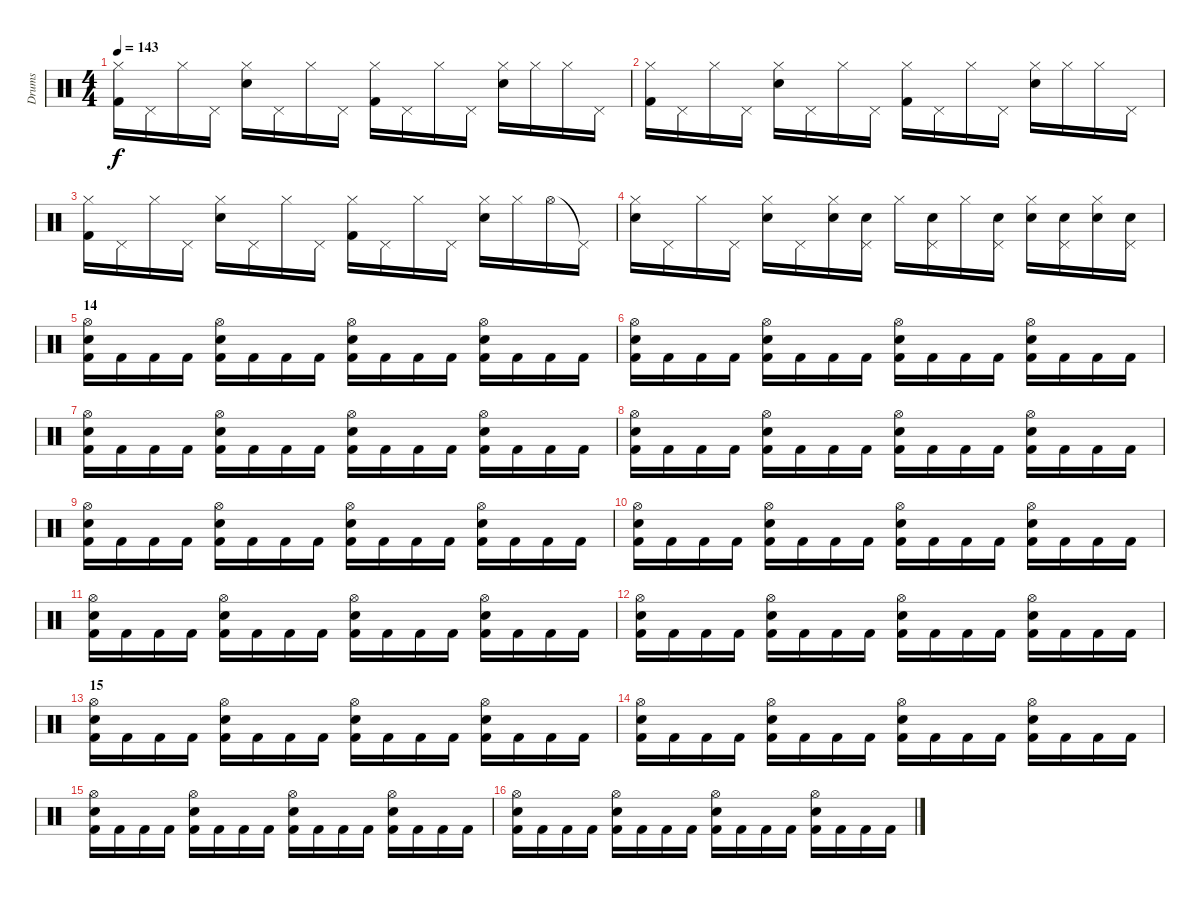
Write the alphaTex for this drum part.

\track ("Drums" "Drums") {instrument percussion}
\staff {score}
\articulation defaults
\ts (4 4)
\tempo 143
\clef neutral
\ks c
("Hi-Hat (closed)" "Kick (hit) 2").16{dy f} "Pedal Hi-Hat (hit)".16 "Hi-Hat (closed)".16 "Pedal Hi-Hat (hit)".16 ("Hi-Hat (closed)" "Electric Snare (hit)").16 "Pedal Hi-Hat (hit)".16 "Hi-Hat (closed)".16 "Pedal Hi-Hat (hit)".16 ("Hi-Hat (closed)" "Kick (hit) 2").16 "Pedal Hi-Hat (hit)".16 "Hi-Hat (closed)".16 "Pedal Hi-Hat (hit)".16 ("Hi-Hat (closed)" "Electric Snare (hit)").16 "Hi-Hat (closed)".16 "Hi-Hat (closed)".16 "Pedal Hi-Hat (hit)".16 |
("Hi-Hat (closed)" "Kick (hit) 2").16 "Pedal Hi-Hat (hit)".16 "Hi-Hat (closed)".16 "Pedal Hi-Hat (hit)".16 ("Hi-Hat (closed)" "Electric Snare (hit)").16 "Pedal Hi-Hat (hit)".16 "Hi-Hat (closed)".16 "Pedal Hi-Hat (hit)".16 ("Hi-Hat (closed)" "Kick (hit) 2").16 "Pedal Hi-Hat (hit)".16 "Hi-Hat (closed)".16 "Pedal Hi-Hat (hit)".16 ("Hi-Hat (closed)" "Electric Snare (hit)").16 "Hi-Hat (closed)".16 "Hi-Hat (closed)".16 "Pedal Hi-Hat (hit)".16 |
("Hi-Hat (closed)" "Kick (hit) 2").16 "Pedal Hi-Hat (hit)".16 "Hi-Hat (closed)".16 "Pedal Hi-Hat (hit)".16 ("Hi-Hat (closed)" "Electric Snare (hit)").16 "Pedal Hi-Hat (hit)".16 "Hi-Hat (closed)".16 "Pedal Hi-Hat (hit)".16 ("Hi-Hat (closed)" "Kick (hit) 2").16 "Pedal Hi-Hat (hit)".16 "Hi-Hat (closed)".16 "Pedal Hi-Hat (hit)".16 ("Hi-Hat (closed)" "Electric Snare (hit)").16 "Hi-Hat (closed)".16 "Hi-Hat (open)".16 "Pedal Hi-Hat (hit)"{t}.16 |
("Hi-Hat (closed)" "Electric Snare (hit)").16 "Pedal Hi-Hat (hit)".16 "Hi-Hat (closed)".16 "Pedal Hi-Hat (hit)".16 ("Hi-Hat (closed)" "Electric Snare (hit)").16 "Pedal Hi-Hat (hit)".16 ("Hi-Hat (closed)" "Electric Snare (hit)").16 ("Pedal Hi-Hat (hit)" "Electric Snare (hit)").16 "Hi-Hat (closed)".16 ("Pedal Hi-Hat (hit)" "Electric Snare (hit)").16 "Hi-Hat (closed)".16 ("Pedal Hi-Hat (hit)" "Electric Snare (hit)").16 ("Hi-Hat (closed)" "Electric Snare (hit)").16 ("Pedal Hi-Hat (hit)" "Electric Snare (hit)").16 ("Hi-Hat (closed)" "Electric Snare (hit)").16 ("Pedal Hi-Hat (hit)" "Electric Snare (hit)").16 |
\section ("" "14")
("Hi-Hat (open)" "Kick (hit) 2" "Electric Snare (hit)").16 "Kick (hit) 2".16 "Kick (hit) 2".16 "Kick (hit) 2".16 ("Hi-Hat (open)" "Kick (hit) 2" "Electric Snare (hit)").16 "Kick (hit) 2".16 "Kick (hit) 2".16 "Kick (hit) 2".16 ("Hi-Hat (open)" "Kick (hit) 2" "Electric Snare (hit)").16 "Kick (hit) 2".16 "Kick (hit) 2".16 "Kick (hit) 2".16 ("Hi-Hat (open)" "Kick (hit) 2" "Electric Snare (hit)").16 "Kick (hit) 2".16 "Kick (hit) 2".16 "Kick (hit) 2".16 |
("Hi-Hat (open)" "Kick (hit) 2" "Electric Snare (hit)").16 "Kick (hit) 2".16 "Kick (hit) 2".16 "Kick (hit) 2".16 ("Hi-Hat (open)" "Kick (hit) 2" "Electric Snare (hit)").16 "Kick (hit) 2".16 "Kick (hit) 2".16 "Kick (hit) 2".16 ("Hi-Hat (open)" "Kick (hit) 2" "Electric Snare (hit)").16 "Kick (hit) 2".16 "Kick (hit) 2".16 "Kick (hit) 2".16 ("Hi-Hat (open)" "Kick (hit) 2" "Electric Snare (hit)").16 "Kick (hit) 2".16 "Kick (hit) 2".16 "Kick (hit) 2".16 |
("Hi-Hat (open)" "Kick (hit) 2" "Electric Snare (hit)").16 "Kick (hit) 2".16 "Kick (hit) 2".16 "Kick (hit) 2".16 ("Hi-Hat (open)" "Kick (hit) 2" "Electric Snare (hit)").16 "Kick (hit) 2".16 "Kick (hit) 2".16 "Kick (hit) 2".16 ("Hi-Hat (open)" "Kick (hit) 2" "Electric Snare (hit)").16 "Kick (hit) 2".16 "Kick (hit) 2".16 "Kick (hit) 2".16 ("Hi-Hat (open)" "Kick (hit) 2" "Electric Snare (hit)").16 "Kick (hit) 2".16 "Kick (hit) 2".16 "Kick (hit) 2".16 |
("Hi-Hat (open)" "Kick (hit) 2" "Electric Snare (hit)").16 "Kick (hit) 2".16 "Kick (hit) 2".16 "Kick (hit) 2".16 ("Hi-Hat (open)" "Kick (hit) 2" "Electric Snare (hit)").16 "Kick (hit) 2".16 "Kick (hit) 2".16 "Kick (hit) 2".16 ("Hi-Hat (open)" "Kick (hit) 2" "Electric Snare (hit)").16 "Kick (hit) 2".16 "Kick (hit) 2".16 "Kick (hit) 2".16 ("Hi-Hat (open)" "Kick (hit) 2" "Electric Snare (hit)").16 "Kick (hit) 2".16 "Kick (hit) 2".16 "Kick (hit) 2".16 |
("Hi-Hat (open)" "Kick (hit) 2" "Electric Snare (hit)").16 "Kick (hit) 2".16 "Kick (hit) 2".16 "Kick (hit) 2".16 ("Hi-Hat (open)" "Kick (hit) 2" "Electric Snare (hit)").16 "Kick (hit) 2".16 "Kick (hit) 2".16 "Kick (hit) 2".16 ("Hi-Hat (open)" "Kick (hit) 2" "Electric Snare (hit)").16 "Kick (hit) 2".16 "Kick (hit) 2".16 "Kick (hit) 2".16 ("Hi-Hat (open)" "Kick (hit) 2" "Electric Snare (hit)").16 "Kick (hit) 2".16 "Kick (hit) 2".16 "Kick (hit) 2".16 |
("Hi-Hat (open)" "Kick (hit) 2" "Electric Snare (hit)").16 "Kick (hit) 2".16 "Kick (hit) 2".16 "Kick (hit) 2".16 ("Hi-Hat (open)" "Kick (hit) 2" "Electric Snare (hit)").16 "Kick (hit) 2".16 "Kick (hit) 2".16 "Kick (hit) 2".16 ("Hi-Hat (open)" "Kick (hit) 2" "Electric Snare (hit)").16 "Kick (hit) 2".16 "Kick (hit) 2".16 "Kick (hit) 2".16 ("Hi-Hat (open)" "Kick (hit) 2" "Electric Snare (hit)").16 "Kick (hit) 2".16 "Kick (hit) 2".16 "Kick (hit) 2".16 |
("Hi-Hat (open)" "Kick (hit) 2" "Electric Snare (hit)").16 "Kick (hit) 2".16 "Kick (hit) 2".16 "Kick (hit) 2".16 ("Hi-Hat (open)" "Kick (hit) 2" "Electric Snare (hit)").16 "Kick (hit) 2".16 "Kick (hit) 2".16 "Kick (hit) 2".16 ("Hi-Hat (open)" "Kick (hit) 2" "Electric Snare (hit)").16 "Kick (hit) 2".16 "Kick (hit) 2".16 "Kick (hit) 2".16 ("Hi-Hat (open)" "Kick (hit) 2" "Electric Snare (hit)").16 "Kick (hit) 2".16 "Kick (hit) 2".16 "Kick (hit) 2".16 |
("Hi-Hat (open)" "Kick (hit) 2" "Electric Snare (hit)").16 "Kick (hit) 2".16 "Kick (hit) 2".16 "Kick (hit) 2".16 ("Hi-Hat (open)" "Kick (hit) 2" "Electric Snare (hit)").16 "Kick (hit) 2".16 "Kick (hit) 2".16 "Kick (hit) 2".16 ("Hi-Hat (open)" "Kick (hit) 2" "Electric Snare (hit)").16 "Kick (hit) 2".16 "Kick (hit) 2".16 "Kick (hit) 2".16 ("Hi-Hat (open)" "Kick (hit) 2" "Electric Snare (hit)").16 "Kick (hit) 2".16 "Kick (hit) 2".16 "Kick (hit) 2".16 |
\section ("" "15")
("Hi-Hat (open)" "Kick (hit) 2" "Electric Snare (hit)").16 "Kick (hit) 2".16 "Kick (hit) 2".16 "Kick (hit) 2".16 ("Hi-Hat (open)" "Kick (hit) 2" "Electric Snare (hit)").16 "Kick (hit) 2".16 "Kick (hit) 2".16 "Kick (hit) 2".16 ("Hi-Hat (open)" "Kick (hit) 2" "Electric Snare (hit)").16 "Kick (hit) 2".16 "Kick (hit) 2".16 "Kick (hit) 2".16 ("Hi-Hat (open)" "Kick (hit) 2" "Electric Snare (hit)").16 "Kick (hit) 2".16 "Kick (hit) 2".16 "Kick (hit) 2".16 |
("Hi-Hat (open)" "Kick (hit) 2" "Electric Snare (hit)").16 "Kick (hit) 2".16 "Kick (hit) 2".16 "Kick (hit) 2".16 ("Hi-Hat (open)" "Kick (hit) 2" "Electric Snare (hit)").16 "Kick (hit) 2".16 "Kick (hit) 2".16 "Kick (hit) 2".16 ("Hi-Hat (open)" "Kick (hit) 2" "Electric Snare (hit)").16 "Kick (hit) 2".16 "Kick (hit) 2".16 "Kick (hit) 2".16 ("Hi-Hat (open)" "Kick (hit) 2" "Electric Snare (hit)").16 "Kick (hit) 2".16 "Kick (hit) 2".16 "Kick (hit) 2".16 |
("Hi-Hat (open)" "Kick (hit) 2" "Electric Snare (hit)").16 "Kick (hit) 2".16 "Kick (hit) 2".16 "Kick (hit) 2".16 ("Hi-Hat (open)" "Kick (hit) 2" "Electric Snare (hit)").16 "Kick (hit) 2".16 "Kick (hit) 2".16 "Kick (hit) 2".16 ("Hi-Hat (open)" "Kick (hit) 2" "Electric Snare (hit)").16 "Kick (hit) 2".16 "Kick (hit) 2".16 "Kick (hit) 2".16 ("Hi-Hat (open)" "Kick (hit) 2" "Electric Snare (hit)").16 "Kick (hit) 2".16 "Kick (hit) 2".16 "Kick (hit) 2".16 |
("Hi-Hat (open)" "Kick (hit) 2" "Electric Snare (hit)").16 "Kick (hit) 2".16 "Kick (hit) 2".16 "Kick (hit) 2".16 ("Hi-Hat (open)" "Kick (hit) 2" "Electric Snare (hit)").16 "Kick (hit) 2".16 "Kick (hit) 2".16 "Kick (hit) 2".16 ("Hi-Hat (open)" "Kick (hit) 2" "Electric Snare (hit)").16 "Kick (hit) 2".16 "Kick (hit) 2".16 "Kick (hit) 2".16 ("Hi-Hat (open)" "Kick (hit) 2" "Electric Snare (hit)").16 "Kick (hit) 2".16 "Kick (hit) 2".16 "Kick (hit) 2".16
